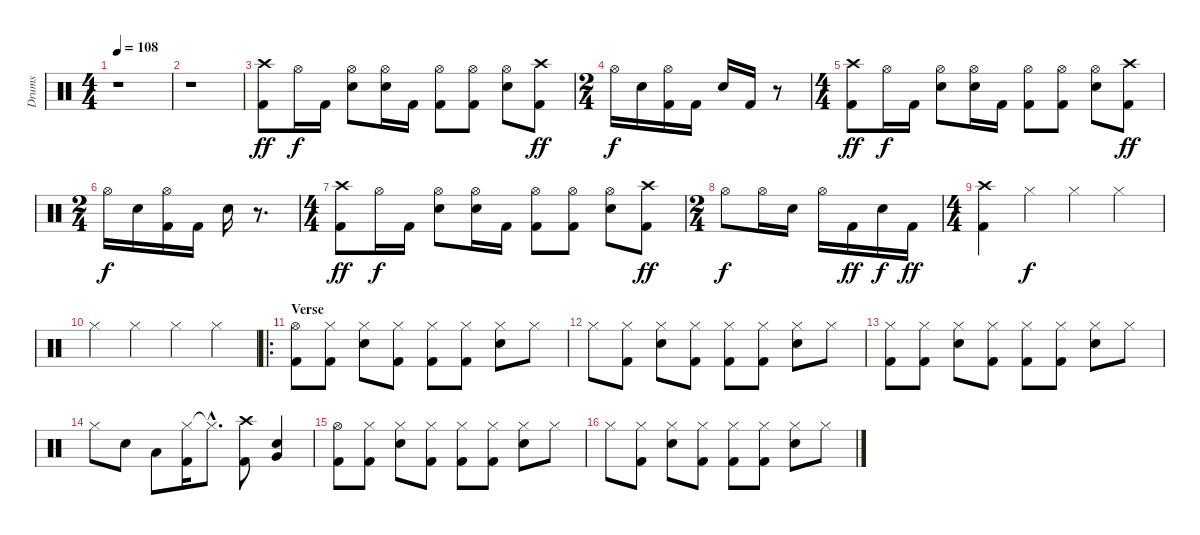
\track ("Drums" "Drums") {instrument percussion}
\staff {score}
\articulation defaults
\ts (4 4)
\tempo 108
\clef neutral
\ks c
r.1{dy ff} |
r.1 |
("Crash high (hit)" "Kick (hit) 2").8 "Hi-Hat (open)".16{dy f} "Kick (hit) 2".16 ("Hi-Hat (open)" "Snare (hit) 2").8 ("Hi-Hat (open)" "Snare (hit) 2").16 "Kick (hit) 2".16 ("Hi-Hat (open)" "Kick (hit) 2").8 ("Hi-Hat (open)" "Kick (hit) 2").8 ("Hi-Hat (open)" "Snare (hit) 2").8 ("Crash high (hit)" "Kick (hit) 2").8{dy ff} |
\ts (2 4)
"Hi-Hat (open)".16{dy f} "Snare (hit) 2".16 ("Hi-Hat (open)" "Kick (hit) 2").16 "Kick (hit) 2".16 "Snare (hit) 2".16 "Kick (hit) 2".16 r.8 |
\ts (4 4)
("Crash high (hit)" "Kick (hit) 2").8{dy ff} "Hi-Hat (open)".16{dy f} "Kick (hit) 2".16 ("Hi-Hat (open)" "Snare (hit) 2").8 ("Hi-Hat (open)" "Snare (hit) 2").16 "Kick (hit) 2".16 ("Hi-Hat (open)" "Kick (hit) 2").8 ("Hi-Hat (open)" "Kick (hit) 2").8 ("Hi-Hat (open)" "Snare (hit) 2").8 ("Crash high (hit)" "Kick (hit) 2").8{dy ff} |
\ts (2 4)
"Hi-Hat (open)".16{dy f} "Snare (hit) 2".16 ("Hi-Hat (open)" "Kick (hit) 2").16 "Kick (hit) 2".16 "Snare (hit) 2".16 r.8{d} |
\ts (4 4)
("Crash high (hit)" "Kick (hit) 2").8{dy ff} "Hi-Hat (open)".16{dy f} "Kick (hit) 2".16 ("Hi-Hat (open)" "Snare (hit) 2").8 ("Hi-Hat (open)" "Snare (hit) 2").16 "Kick (hit) 2".16 ("Hi-Hat (open)" "Kick (hit) 2").8 ("Hi-Hat (open)" "Kick (hit) 2").8 ("Hi-Hat (open)" "Snare (hit) 2").8 ("Crash high (hit)" "Kick (hit) 2").8{dy ff} |
\ts (2 4)
"Hi-Hat (open)".8{dy f} "Hi-Hat (open)".16 "Snare (hit) 2".16 "Hi-Hat (open)".16 "Kick (hit) 2".16{dy ff} "Snare (hit) 2".16{dy f} "Kick (hit) 2".16{dy ff} |
\ts (4 4)
("Crash high (hit)" "Kick (hit) 2").4 "Hi-Hat (closed)".4{dy f} "Hi-Hat (closed)".4 "Hi-Hat (closed)".4 |
"Hi-Hat (closed)".4 "Hi-Hat (closed)".4 "Hi-Hat (closed)".4 "Hi-Hat (closed)".4 |
\ro
\section ("" "Verse")
("Hi-Hat (open)" "Kick (hit) 2").8 ("Hi-Hat (closed)" "Kick (hit) 2").8 ("Hi-Hat (closed)" "Snare (hit) 2").8 ("Hi-Hat (closed)" "Kick (hit) 2").8 ("Hi-Hat (closed)" "Kick (hit) 2").8 ("Hi-Hat (closed)" "Kick (hit) 2").8 ("Hi-Hat (closed)" "Snare (hit) 2").8 "Hi-Hat (closed)".8 |
"Hi-Hat (closed)".8 ("Hi-Hat (closed)" "Kick (hit) 2").8 ("Hi-Hat (closed)" "Snare (hit) 2").8 ("Hi-Hat (closed)" "Kick (hit) 2").8 ("Hi-Hat (closed)" "Kick (hit) 2").8 ("Hi-Hat (closed)" "Kick (hit) 2").8 ("Hi-Hat (closed)" "Snare (hit) 2").8 "Hi-Hat (closed)".8 |
("Hi-Hat (closed)" "Kick (hit) 2").8 ("Hi-Hat (closed)" "Kick (hit) 2").8 ("Hi-Hat (closed)" "Snare (hit) 2").8 ("Hi-Hat (closed)" "Kick (hit) 2").8 ("Hi-Hat (closed)" "Kick (hit) 2").8 ("Hi-Hat (closed)" "Kick (hit) 2").8 ("Hi-Hat (closed)" "Snare (hit) 2").8 "Hi-Hat (closed)".8 |
"Hi-Hat (closed)".8 "Snare (hit) 2".8 "Low Tom (hit)".8 ("Hi-Hat (closed)" "Kick (hit) 2").16 "Hi-Hat (closed)"{hac t}.8{d} ("Crash high (hit)" "Kick (hit) 2").8 ("Very Low Tom (hit)" "Snare (hit) 2").4 |
("Hi-Hat (open)" "Kick (hit) 2").8 ("Hi-Hat (closed)" "Kick (hit) 2").8 ("Hi-Hat (closed)" "Snare (hit) 2").8 ("Hi-Hat (closed)" "Kick (hit) 2").8 ("Hi-Hat (closed)" "Kick (hit) 2").8 ("Hi-Hat (closed)" "Kick (hit) 2").8 ("Hi-Hat (closed)" "Snare (hit) 2").8 "Hi-Hat (closed)".8 |
"Hi-Hat (closed)".8 ("Hi-Hat (closed)" "Kick (hit) 2").8 ("Hi-Hat (closed)" "Snare (hit) 2").8 ("Hi-Hat (closed)" "Kick (hit) 2").8 ("Hi-Hat (closed)" "Kick (hit) 2").8 ("Hi-Hat (closed)" "Kick (hit) 2").8 ("Hi-Hat (closed)" "Snare (hit) 2").8 "Hi-Hat (closed)".8
